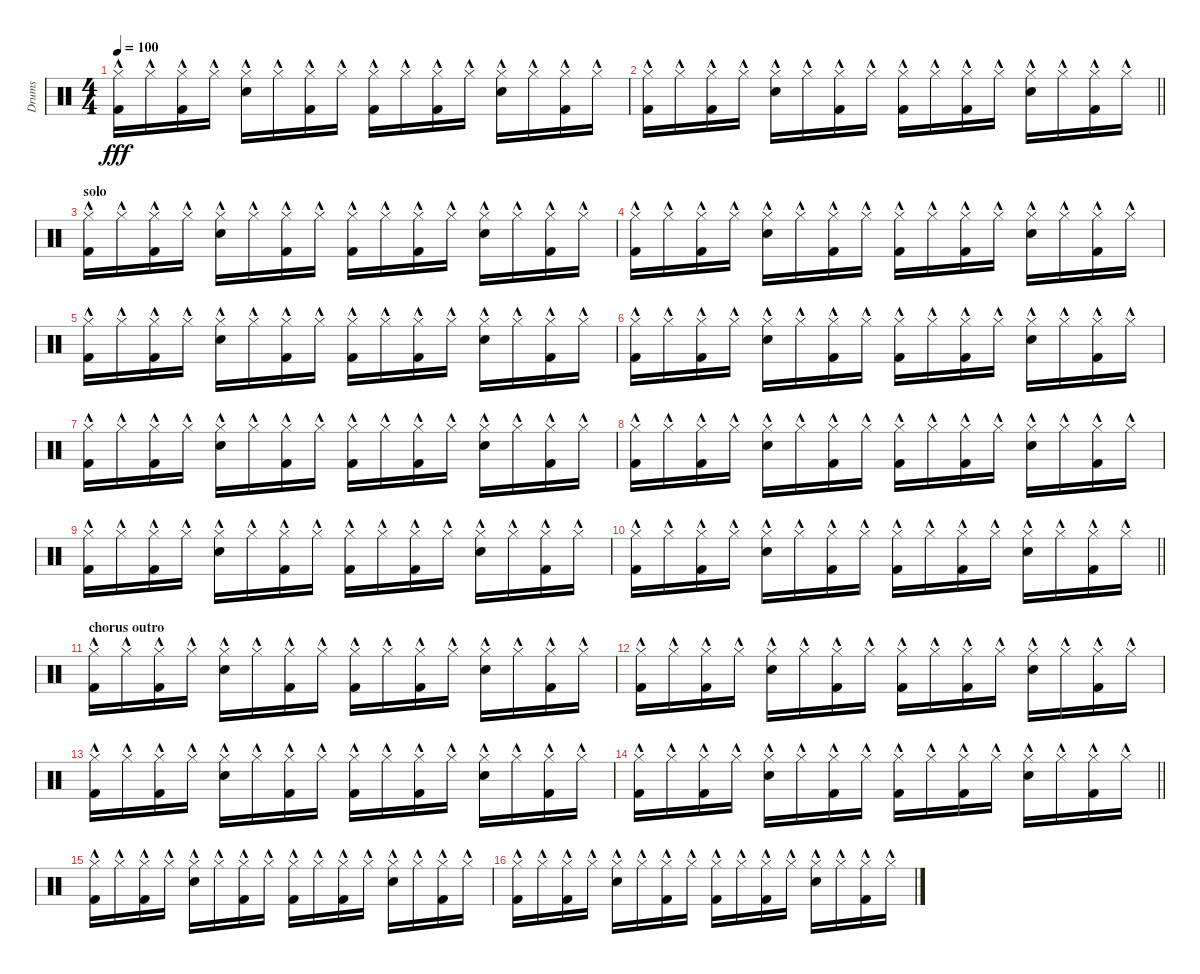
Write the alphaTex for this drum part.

\track ("Drums" "Drums") {instrument percussion}
\staff {score}
\articulation defaults
\ts (4 4)
\tempo 100
\clef neutral
\ks c
("Hi-Hat (closed)"{hac} "Kick (hit) 2").16{dy fff} "Hi-Hat (closed)"{hac}.16 ("Hi-Hat (closed)"{hac} "Kick (hit) 2").16 "Hi-Hat (closed)"{hac}.16 ("Hi-Hat (closed)"{hac} "Electric Snare (hit)"{hac}).16 "Hi-Hat (closed)"{hac}.16 ("Hi-Hat (closed)"{hac} "Kick (hit) 2").16 "Hi-Hat (closed)"{hac}.16 ("Hi-Hat (closed)"{hac} "Kick (hit) 2").16 "Hi-Hat (closed)"{hac}.16 ("Hi-Hat (closed)"{hac} "Kick (hit) 2").16 "Hi-Hat (closed)"{hac}.16 ("Hi-Hat (closed)"{hac} "Electric Snare (hit)"{hac}).16 "Hi-Hat (closed)"{hac}.16 ("Hi-Hat (closed)"{hac} "Kick (hit) 2").16 "Hi-Hat (closed)"{hac}.16 |
\barLineRight lightlight
("Hi-Hat (closed)"{hac} "Kick (hit) 2").16 "Hi-Hat (closed)"{hac}.16 ("Hi-Hat (closed)"{hac} "Kick (hit) 2").16 "Hi-Hat (closed)"{hac}.16 ("Hi-Hat (closed)"{hac} "Electric Snare (hit)"{hac}).16 "Hi-Hat (closed)"{hac}.16 ("Hi-Hat (closed)"{hac} "Kick (hit) 2").16 "Hi-Hat (closed)"{hac}.16 ("Hi-Hat (closed)"{hac} "Kick (hit) 2").16 "Hi-Hat (closed)"{hac}.16 ("Hi-Hat (closed)"{hac} "Kick (hit) 2").16 "Hi-Hat (closed)"{hac}.16 ("Hi-Hat (closed)"{hac} "Electric Snare (hit)"{hac}).16 "Hi-Hat (closed)"{hac}.16 ("Hi-Hat (closed)"{hac} "Kick (hit) 2").16 "Hi-Hat (closed)"{hac}.16 |
\section ("" "solo")
("Hi-Hat (closed)"{hac} "Kick (hit) 2").16 "Hi-Hat (closed)"{hac}.16 ("Hi-Hat (closed)"{hac} "Kick (hit) 2").16 "Hi-Hat (closed)"{hac}.16 ("Hi-Hat (closed)"{hac} "Electric Snare (hit)"{hac}).16 "Hi-Hat (closed)"{hac}.16 ("Hi-Hat (closed)"{hac} "Kick (hit) 2").16 "Hi-Hat (closed)"{hac}.16 ("Hi-Hat (closed)"{hac} "Kick (hit) 2").16 "Hi-Hat (closed)"{hac}.16 ("Hi-Hat (closed)"{hac} "Kick (hit) 2").16 "Hi-Hat (closed)"{hac}.16 ("Hi-Hat (closed)"{hac} "Electric Snare (hit)"{hac}).16 "Hi-Hat (closed)"{hac}.16 ("Hi-Hat (closed)"{hac} "Kick (hit) 2").16 "Hi-Hat (closed)"{hac}.16 |
("Hi-Hat (closed)"{hac} "Kick (hit) 2").16 "Hi-Hat (closed)"{hac}.16 ("Hi-Hat (closed)"{hac} "Kick (hit) 2").16 "Hi-Hat (closed)"{hac}.16 ("Hi-Hat (closed)"{hac} "Electric Snare (hit)"{hac}).16 "Hi-Hat (closed)"{hac}.16 ("Hi-Hat (closed)"{hac} "Kick (hit) 2").16 "Hi-Hat (closed)"{hac}.16 ("Hi-Hat (closed)"{hac} "Kick (hit) 2").16 "Hi-Hat (closed)"{hac}.16 ("Hi-Hat (closed)"{hac} "Kick (hit) 2").16 "Hi-Hat (closed)"{hac}.16 ("Hi-Hat (closed)"{hac} "Electric Snare (hit)"{hac}).16 "Hi-Hat (closed)"{hac}.16 ("Hi-Hat (closed)"{hac} "Kick (hit) 2").16 "Hi-Hat (closed)"{hac}.16 |
("Hi-Hat (closed)"{hac} "Kick (hit) 2").16 "Hi-Hat (closed)"{hac}.16 ("Hi-Hat (closed)"{hac} "Kick (hit) 2").16 "Hi-Hat (closed)"{hac}.16 ("Hi-Hat (closed)"{hac} "Electric Snare (hit)"{hac}).16 "Hi-Hat (closed)"{hac}.16 ("Hi-Hat (closed)"{hac} "Kick (hit) 2").16 "Hi-Hat (closed)"{hac}.16 ("Hi-Hat (closed)"{hac} "Kick (hit) 2").16 "Hi-Hat (closed)"{hac}.16 ("Hi-Hat (closed)"{hac} "Kick (hit) 2").16 "Hi-Hat (closed)"{hac}.16 ("Hi-Hat (closed)"{hac} "Electric Snare (hit)"{hac}).16 "Hi-Hat (closed)"{hac}.16 ("Hi-Hat (closed)"{hac} "Kick (hit) 2").16 "Hi-Hat (closed)"{hac}.16 |
("Hi-Hat (closed)"{hac} "Kick (hit) 2").16 "Hi-Hat (closed)"{hac}.16 ("Hi-Hat (closed)"{hac} "Kick (hit) 2").16 "Hi-Hat (closed)"{hac}.16 ("Hi-Hat (closed)"{hac} "Electric Snare (hit)"{hac}).16 "Hi-Hat (closed)"{hac}.16 ("Hi-Hat (closed)"{hac} "Kick (hit) 2").16 "Hi-Hat (closed)"{hac}.16 ("Hi-Hat (closed)"{hac} "Kick (hit) 2").16 "Hi-Hat (closed)"{hac}.16 ("Hi-Hat (closed)"{hac} "Kick (hit) 2").16 "Hi-Hat (closed)"{hac}.16 ("Hi-Hat (closed)"{hac} "Electric Snare (hit)"{hac}).16 "Hi-Hat (closed)"{hac}.16 ("Hi-Hat (closed)"{hac} "Kick (hit) 2").16 "Hi-Hat (closed)"{hac}.16 |
("Hi-Hat (closed)"{hac} "Kick (hit) 2").16 "Hi-Hat (closed)"{hac}.16 ("Hi-Hat (closed)"{hac} "Kick (hit) 2").16 "Hi-Hat (closed)"{hac}.16 ("Hi-Hat (closed)"{hac} "Electric Snare (hit)"{hac}).16 "Hi-Hat (closed)"{hac}.16 ("Hi-Hat (closed)"{hac} "Kick (hit) 2").16 "Hi-Hat (closed)"{hac}.16 ("Hi-Hat (closed)"{hac} "Kick (hit) 2").16 "Hi-Hat (closed)"{hac}.16 ("Hi-Hat (closed)"{hac} "Kick (hit) 2").16 "Hi-Hat (closed)"{hac}.16 ("Hi-Hat (closed)"{hac} "Electric Snare (hit)"{hac}).16 "Hi-Hat (closed)"{hac}.16 ("Hi-Hat (closed)"{hac} "Kick (hit) 2").16 "Hi-Hat (closed)"{hac}.16 |
("Hi-Hat (closed)"{hac} "Kick (hit) 2").16 "Hi-Hat (closed)"{hac}.16 ("Hi-Hat (closed)"{hac} "Kick (hit) 2").16 "Hi-Hat (closed)"{hac}.16 ("Hi-Hat (closed)"{hac} "Electric Snare (hit)"{hac}).16 "Hi-Hat (closed)"{hac}.16 ("Hi-Hat (closed)"{hac} "Kick (hit) 2").16 "Hi-Hat (closed)"{hac}.16 ("Hi-Hat (closed)"{hac} "Kick (hit) 2").16 "Hi-Hat (closed)"{hac}.16 ("Hi-Hat (closed)"{hac} "Kick (hit) 2").16 "Hi-Hat (closed)"{hac}.16 ("Hi-Hat (closed)"{hac} "Electric Snare (hit)"{hac}).16 "Hi-Hat (closed)"{hac}.16 ("Hi-Hat (closed)"{hac} "Kick (hit) 2").16 "Hi-Hat (closed)"{hac}.16 |
("Hi-Hat (closed)"{hac} "Kick (hit) 2").16 "Hi-Hat (closed)"{hac}.16 ("Hi-Hat (closed)"{hac} "Kick (hit) 2").16 "Hi-Hat (closed)"{hac}.16 ("Hi-Hat (closed)"{hac} "Electric Snare (hit)"{hac}).16 "Hi-Hat (closed)"{hac}.16 ("Hi-Hat (closed)"{hac} "Kick (hit) 2").16 "Hi-Hat (closed)"{hac}.16 ("Hi-Hat (closed)"{hac} "Kick (hit) 2").16 "Hi-Hat (closed)"{hac}.16 ("Hi-Hat (closed)"{hac} "Kick (hit) 2").16 "Hi-Hat (closed)"{hac}.16 ("Hi-Hat (closed)"{hac} "Electric Snare (hit)"{hac}).16 "Hi-Hat (closed)"{hac}.16 ("Hi-Hat (closed)"{hac} "Kick (hit) 2").16 "Hi-Hat (closed)"{hac}.16 |
\barLineRight lightlight
("Hi-Hat (closed)"{hac} "Kick (hit) 2").16 "Hi-Hat (closed)"{hac}.16 ("Hi-Hat (closed)"{hac} "Kick (hit) 2").16 "Hi-Hat (closed)"{hac}.16 ("Hi-Hat (closed)"{hac} "Electric Snare (hit)"{hac}).16 "Hi-Hat (closed)"{hac}.16 ("Hi-Hat (closed)"{hac} "Kick (hit) 2").16 "Hi-Hat (closed)"{hac}.16 ("Hi-Hat (closed)"{hac} "Kick (hit) 2").16 "Hi-Hat (closed)"{hac}.16 ("Hi-Hat (closed)"{hac} "Kick (hit) 2").16 "Hi-Hat (closed)"{hac}.16 ("Hi-Hat (closed)"{hac} "Electric Snare (hit)"{hac}).16 "Hi-Hat (closed)"{hac}.16 ("Hi-Hat (closed)"{hac} "Kick (hit) 2").16 "Hi-Hat (closed)"{hac}.16 |
\section ("" "chorus outro")
("Hi-Hat (closed)"{hac} "Kick (hit) 2").16 "Hi-Hat (closed)"{hac}.16 ("Hi-Hat (closed)"{hac} "Kick (hit) 2").16 "Hi-Hat (closed)"{hac}.16 ("Hi-Hat (closed)"{hac} "Electric Snare (hit)"{hac}).16 "Hi-Hat (closed)"{hac}.16 ("Hi-Hat (closed)"{hac} "Kick (hit) 2").16 "Hi-Hat (closed)"{hac}.16 ("Hi-Hat (closed)"{hac} "Kick (hit) 2").16 "Hi-Hat (closed)"{hac}.16 ("Hi-Hat (closed)"{hac} "Kick (hit) 2").16 "Hi-Hat (closed)"{hac}.16 ("Hi-Hat (closed)"{hac} "Electric Snare (hit)"{hac}).16 "Hi-Hat (closed)"{hac}.16 ("Hi-Hat (closed)"{hac} "Kick (hit) 2").16 "Hi-Hat (closed)"{hac}.16 |
("Hi-Hat (closed)"{hac} "Kick (hit) 2").16 "Hi-Hat (closed)"{hac}.16 ("Hi-Hat (closed)"{hac} "Kick (hit) 2").16 "Hi-Hat (closed)"{hac}.16 ("Hi-Hat (closed)"{hac} "Electric Snare (hit)"{hac}).16 "Hi-Hat (closed)"{hac}.16 ("Hi-Hat (closed)"{hac} "Kick (hit) 2").16 "Hi-Hat (closed)"{hac}.16 ("Hi-Hat (closed)"{hac} "Kick (hit) 2").16 "Hi-Hat (closed)"{hac}.16 ("Hi-Hat (closed)"{hac} "Kick (hit) 2").16 "Hi-Hat (closed)"{hac}.16 ("Hi-Hat (closed)"{hac} "Electric Snare (hit)"{hac}).16 "Hi-Hat (closed)"{hac}.16 ("Hi-Hat (closed)"{hac} "Kick (hit) 2").16 "Hi-Hat (closed)"{hac}.16 |
("Hi-Hat (closed)"{hac} "Kick (hit) 2").16 "Hi-Hat (closed)"{hac}.16 ("Hi-Hat (closed)"{hac} "Kick (hit) 2").16 "Hi-Hat (closed)"{hac}.16 ("Hi-Hat (closed)"{hac} "Electric Snare (hit)"{hac}).16 "Hi-Hat (closed)"{hac}.16 ("Hi-Hat (closed)"{hac} "Kick (hit) 2").16 "Hi-Hat (closed)"{hac}.16 ("Hi-Hat (closed)"{hac} "Kick (hit) 2").16 "Hi-Hat (closed)"{hac}.16 ("Hi-Hat (closed)"{hac} "Kick (hit) 2").16 "Hi-Hat (closed)"{hac}.16 ("Hi-Hat (closed)"{hac} "Electric Snare (hit)"{hac}).16 "Hi-Hat (closed)"{hac}.16 ("Hi-Hat (closed)"{hac} "Kick (hit) 2").16 "Hi-Hat (closed)"{hac}.16 |
\barLineRight lightlight
("Hi-Hat (closed)"{hac} "Kick (hit) 2").16 "Hi-Hat (closed)"{hac}.16 ("Hi-Hat (closed)"{hac} "Kick (hit) 2").16 "Hi-Hat (closed)"{hac}.16 ("Hi-Hat (closed)"{hac} "Electric Snare (hit)"{hac}).16 "Hi-Hat (closed)"{hac}.16 ("Hi-Hat (closed)"{hac} "Kick (hit) 2").16 "Hi-Hat (closed)"{hac}.16 ("Hi-Hat (closed)"{hac} "Kick (hit) 2").16 "Hi-Hat (closed)"{hac}.16 ("Hi-Hat (closed)"{hac} "Kick (hit) 2").16 "Hi-Hat (closed)"{hac}.16 ("Hi-Hat (closed)"{hac} "Electric Snare (hit)"{hac}).16 "Hi-Hat (closed)"{hac}.16 ("Hi-Hat (closed)"{hac} "Kick (hit) 2").16 "Hi-Hat (closed)"{hac}.16 |
("Hi-Hat (closed)"{hac} "Kick (hit) 2").16 "Hi-Hat (closed)"{hac}.16 ("Hi-Hat (closed)"{hac} "Kick (hit) 2").16 "Hi-Hat (closed)"{hac}.16 ("Hi-Hat (closed)"{hac} "Electric Snare (hit)"{hac}).16 "Hi-Hat (closed)"{hac}.16 ("Hi-Hat (closed)"{hac} "Kick (hit) 2").16 "Hi-Hat (closed)"{hac}.16 ("Hi-Hat (closed)"{hac} "Kick (hit) 2").16 "Hi-Hat (closed)"{hac}.16 ("Hi-Hat (closed)"{hac} "Kick (hit) 2").16 "Hi-Hat (closed)"{hac}.16 ("Hi-Hat (closed)"{hac} "Electric Snare (hit)"{hac}).16 "Hi-Hat (closed)"{hac}.16 ("Hi-Hat (closed)"{hac} "Kick (hit) 2").16 "Hi-Hat (closed)"{hac}.16 |
("Hi-Hat (closed)"{hac} "Kick (hit) 2").16 "Hi-Hat (closed)"{hac}.16 ("Hi-Hat (closed)"{hac} "Kick (hit) 2").16 "Hi-Hat (closed)"{hac}.16 ("Hi-Hat (closed)"{hac} "Electric Snare (hit)"{hac}).16 "Hi-Hat (closed)"{hac}.16 ("Hi-Hat (closed)"{hac} "Kick (hit) 2").16 "Hi-Hat (closed)"{hac}.16 ("Hi-Hat (closed)"{hac} "Kick (hit) 2").16 "Hi-Hat (closed)"{hac}.16 ("Hi-Hat (closed)"{hac} "Kick (hit) 2").16 "Hi-Hat (closed)"{hac}.16 ("Hi-Hat (closed)"{hac} "Electric Snare (hit)"{hac}).16 "Hi-Hat (closed)"{hac}.16 ("Hi-Hat (closed)"{hac} "Kick (hit) 2").16 "Hi-Hat (closed)"{hac}.16
